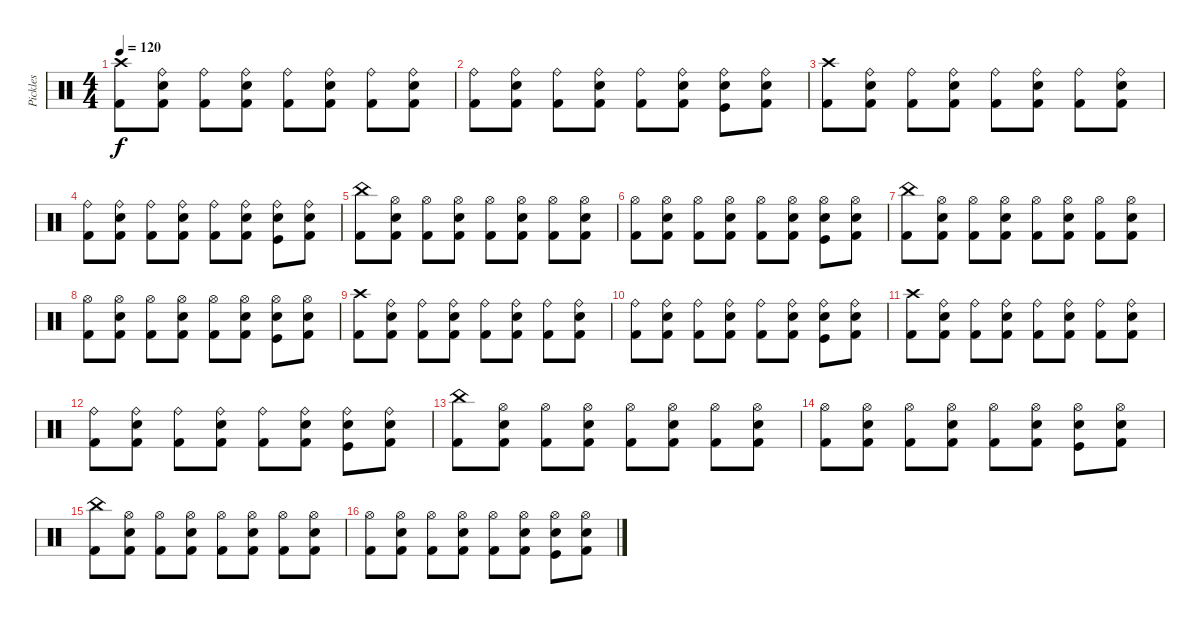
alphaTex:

\track ("Pickles" "Pickles") {instrument percussion}
\staff {score}
\articulation defaults
\ts (4 4)
\tempo 120
\clef neutral
\ks aminor
("Kick (hit) 2" "Crash high (hit)").8{dy f} ("Snare (hit) 2" "Kick (hit) 2" "Ride (bell)").8 ("Kick (hit) 2" "Ride (bell)").8 ("Snare (hit) 2" "Kick (hit) 2" "Ride (bell)").8 ("Kick (hit) 2" "Ride (bell)").8 ("Snare (hit) 2" "Kick (hit) 2" "Ride (bell)").8 ("Kick (hit) 2" "Ride (bell)").8 ("Snare (hit) 2" "Kick (hit) 2" "Ride (bell)").8 |
("Kick (hit) 2" "Ride (bell)").8 ("Snare (hit) 2" "Kick (hit) 2" "Ride (bell)").8 ("Kick (hit) 2" "Ride (bell)").8 ("Snare (hit) 2" "Kick (hit) 2" "Ride (bell)").8 ("Kick (hit) 2" "Ride (bell)").8 ("Snare (hit) 2" "Kick (hit) 2" "Ride (bell)").8 ("Snare (hit) 2" "Kick (hit)" "Ride (bell)").8 ("Snare (hit) 2" "Kick (hit) 2" "Ride (bell)").8 |
("Kick (hit) 2" "Crash high (hit)").8 ("Snare (hit) 2" "Kick (hit) 2" "Ride (bell)").8 ("Kick (hit) 2" "Ride (bell)").8 ("Snare (hit) 2" "Kick (hit) 2" "Ride (bell)").8 ("Kick (hit) 2" "Ride (bell)").8 ("Snare (hit) 2" "Kick (hit) 2" "Ride (bell)").8 ("Kick (hit) 2" "Ride (bell)").8 ("Snare (hit) 2" "Kick (hit) 2" "Ride (bell)").8 |
("Kick (hit) 2" "Ride (bell)").8 ("Snare (hit) 2" "Kick (hit) 2" "Ride (bell)").8 ("Kick (hit) 2" "Ride (bell)").8 ("Snare (hit) 2" "Kick (hit) 2" "Ride (bell)").8 ("Kick (hit) 2" "Ride (bell)").8 ("Snare (hit) 2" "Kick (hit) 2" "Ride (bell)").8 ("Snare (hit) 2" "Kick (hit)" "Ride (bell)").8 ("Snare (hit) 2" "Kick (hit) 2" "Ride (bell)").8 |
("Kick (hit) 2" "China (hit)").8 ("Snare (hit) 2" "Kick (hit) 2" "Hi-Hat (open)").8 ("Kick (hit) 2" "Hi-Hat (open)").8 ("Snare (hit) 2" "Kick (hit) 2" "Hi-Hat (open)").8 ("Kick (hit) 2" "Hi-Hat (open)").8 ("Snare (hit) 2" "Kick (hit) 2" "Hi-Hat (open)").8 ("Kick (hit) 2" "Hi-Hat (open)").8 ("Snare (hit) 2" "Kick (hit) 2" "Hi-Hat (open)").8 |
("Kick (hit) 2" "Hi-Hat (open)").8 ("Snare (hit) 2" "Kick (hit) 2" "Hi-Hat (open)").8 ("Kick (hit) 2" "Hi-Hat (open)").8 ("Snare (hit) 2" "Kick (hit) 2" "Hi-Hat (open)").8 ("Kick (hit) 2" "Hi-Hat (open)").8 ("Snare (hit) 2" "Kick (hit) 2" "Hi-Hat (open)").8 ("Snare (hit) 2" "Kick (hit)" "Hi-Hat (open)").8 ("Snare (hit) 2" "Kick (hit) 2" "Hi-Hat (open)").8 |
("Kick (hit) 2" "China (hit)").8 ("Snare (hit) 2" "Kick (hit) 2" "Hi-Hat (open)").8 ("Kick (hit) 2" "Hi-Hat (open)").8 ("Snare (hit) 2" "Kick (hit) 2" "Hi-Hat (open)").8 ("Kick (hit) 2" "Hi-Hat (open)").8 ("Snare (hit) 2" "Kick (hit) 2" "Hi-Hat (open)").8 ("Kick (hit) 2" "Hi-Hat (open)").8 ("Snare (hit) 2" "Kick (hit) 2" "Hi-Hat (open)").8 |
("Kick (hit) 2" "Hi-Hat (open)").8 ("Snare (hit) 2" "Kick (hit) 2" "Hi-Hat (open)").8 ("Kick (hit) 2" "Hi-Hat (open)").8 ("Snare (hit) 2" "Kick (hit) 2" "Hi-Hat (open)").8 ("Kick (hit) 2" "Hi-Hat (open)").8 ("Snare (hit) 2" "Kick (hit) 2" "Hi-Hat (open)").8 ("Snare (hit) 2" "Kick (hit)" "Hi-Hat (open)").8 ("Snare (hit) 2" "Kick (hit) 2" "Hi-Hat (open)").8 |
("Kick (hit) 2" "Crash high (hit)").8 ("Snare (hit) 2" "Kick (hit) 2" "Ride (bell)").8 ("Kick (hit) 2" "Ride (bell)").8 ("Snare (hit) 2" "Kick (hit) 2" "Ride (bell)").8 ("Kick (hit) 2" "Ride (bell)").8 ("Snare (hit) 2" "Kick (hit) 2" "Ride (bell)").8 ("Kick (hit) 2" "Ride (bell)").8 ("Snare (hit) 2" "Kick (hit) 2" "Ride (bell)").8 |
("Kick (hit) 2" "Ride (bell)").8 ("Snare (hit) 2" "Kick (hit) 2" "Ride (bell)").8 ("Kick (hit) 2" "Ride (bell)").8 ("Snare (hit) 2" "Kick (hit) 2" "Ride (bell)").8 ("Kick (hit) 2" "Ride (bell)").8 ("Snare (hit) 2" "Kick (hit) 2" "Ride (bell)").8 ("Snare (hit) 2" "Kick (hit)" "Ride (bell)").8 ("Snare (hit) 2" "Kick (hit) 2" "Ride (bell)").8 |
("Kick (hit) 2" "Crash high (hit)").8 ("Snare (hit) 2" "Kick (hit) 2" "Ride (bell)").8 ("Kick (hit) 2" "Ride (bell)").8 ("Snare (hit) 2" "Kick (hit) 2" "Ride (bell)").8 ("Kick (hit) 2" "Ride (bell)").8 ("Snare (hit) 2" "Kick (hit) 2" "Ride (bell)").8 ("Kick (hit) 2" "Ride (bell)").8 ("Snare (hit) 2" "Kick (hit) 2" "Ride (bell)").8 |
("Kick (hit) 2" "Ride (bell)").8 ("Snare (hit) 2" "Kick (hit) 2" "Ride (bell)").8 ("Kick (hit) 2" "Ride (bell)").8 ("Snare (hit) 2" "Kick (hit) 2" "Ride (bell)").8 ("Kick (hit) 2" "Ride (bell)").8 ("Snare (hit) 2" "Kick (hit) 2" "Ride (bell)").8 ("Snare (hit) 2" "Kick (hit)" "Ride (bell)").8 ("Snare (hit) 2" "Kick (hit) 2" "Ride (bell)").8 |
("Kick (hit) 2" "China (hit)").8 ("Snare (hit) 2" "Kick (hit) 2" "Hi-Hat (open)").8 ("Kick (hit) 2" "Hi-Hat (open)").8 ("Snare (hit) 2" "Kick (hit) 2" "Hi-Hat (open)").8 ("Kick (hit) 2" "Hi-Hat (open)").8 ("Snare (hit) 2" "Kick (hit) 2" "Hi-Hat (open)").8 ("Kick (hit) 2" "Hi-Hat (open)").8 ("Snare (hit) 2" "Kick (hit) 2" "Hi-Hat (open)").8 |
("Kick (hit) 2" "Hi-Hat (open)").8 ("Snare (hit) 2" "Kick (hit) 2" "Hi-Hat (open)").8 ("Kick (hit) 2" "Hi-Hat (open)").8 ("Snare (hit) 2" "Kick (hit) 2" "Hi-Hat (open)").8 ("Kick (hit) 2" "Hi-Hat (open)").8 ("Snare (hit) 2" "Kick (hit) 2" "Hi-Hat (open)").8 ("Snare (hit) 2" "Kick (hit)" "Hi-Hat (open)").8 ("Snare (hit) 2" "Kick (hit) 2" "Hi-Hat (open)").8 |
("Kick (hit) 2" "China (hit)").8 ("Snare (hit) 2" "Kick (hit) 2" "Hi-Hat (open)").8 ("Kick (hit) 2" "Hi-Hat (open)").8 ("Snare (hit) 2" "Kick (hit) 2" "Hi-Hat (open)").8 ("Kick (hit) 2" "Hi-Hat (open)").8 ("Snare (hit) 2" "Kick (hit) 2" "Hi-Hat (open)").8 ("Kick (hit) 2" "Hi-Hat (open)").8 ("Snare (hit) 2" "Kick (hit) 2" "Hi-Hat (open)").8 |
("Kick (hit) 2" "Hi-Hat (open)").8 ("Snare (hit) 2" "Kick (hit) 2" "Hi-Hat (open)").8 ("Kick (hit) 2" "Hi-Hat (open)").8 ("Snare (hit) 2" "Kick (hit) 2" "Hi-Hat (open)").8 ("Kick (hit) 2" "Hi-Hat (open)").8 ("Snare (hit) 2" "Kick (hit) 2" "Hi-Hat (open)").8 ("Snare (hit) 2" "Kick (hit)" "Hi-Hat (open)").8 ("Snare (hit) 2" "Kick (hit) 2" "Hi-Hat (open)").8
